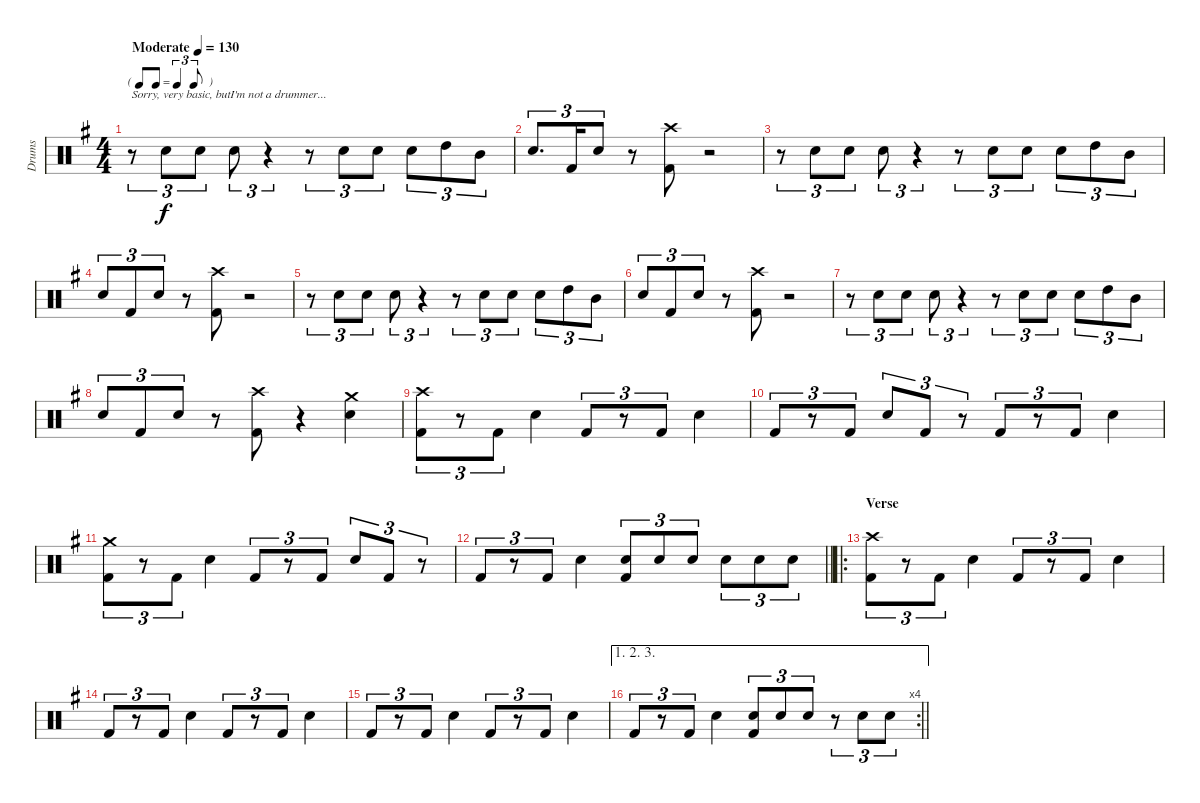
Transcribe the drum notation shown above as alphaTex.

\track ("Drums" "Drums") {instrument percussion}
\staff {score}
\articulation defaults
\ts (4 4)
\tf triplet8th
\tempo (130 "Moderate")
\clef neutral
\ks eminor
r.8{tu (3 2) txt "Sorry, very basic, butI'm not a drummer..." dy f} "Snare (hit) 2".8{tu (3 2)} "Snare (hit) 2".8{tu (3 2)} "Snare (hit) 2".8{tu (3 2)} r.4{tu (3 2)} r.8{tu (3 2)} "Snare (hit) 2".8{tu (3 2)} "Snare (hit) 2".8{tu (3 2)} "Snare (hit) 2".8{tu (3 2)} "High Tom (hit)".8{tu (3 2)} "Mid Tom (hit)".8{tu (3 2)} |
"Snare (hit) 2".8{d tu (3 2)} "Kick (hit) 2".16{tu (3 2)} "Snare (hit) 2".8{tu (3 2)} r.8 ("Kick (hit) 2" "Crash high (hit)").8 r.2 |
r.8{tu (3 2)} "Snare (hit) 2".8{tu (3 2)} "Snare (hit) 2".8{tu (3 2)} "Snare (hit) 2".8{tu (3 2)} r.4{tu (3 2)} r.8{tu (3 2)} "Snare (hit) 2".8{tu (3 2)} "Snare (hit) 2".8{tu (3 2)} "Snare (hit) 2".8{tu (3 2)} "High Tom (hit)".8{tu (3 2)} "Mid Tom (hit)".8{tu (3 2)} |
"Snare (hit) 2".8{tu (3 2)} "Kick (hit) 2".8{tu (3 2)} "Snare (hit) 2".8{tu (3 2)} r.8 ("Kick (hit) 2" "Crash high (hit)").8 r.2 |
r.8{tu (3 2)} "Snare (hit) 2".8{tu (3 2)} "Snare (hit) 2".8{tu (3 2)} "Snare (hit) 2".8{tu (3 2)} r.4{tu (3 2)} r.8{tu (3 2)} "Snare (hit) 2".8{tu (3 2)} "Snare (hit) 2".8{tu (3 2)} "Snare (hit) 2".8{tu (3 2)} "High Tom (hit)".8{tu (3 2)} "Mid Tom (hit)".8{tu (3 2)} |
"Snare (hit) 2".8{tu (3 2)} "Kick (hit) 2".8{tu (3 2)} "Snare (hit) 2".8{tu (3 2)} r.8 ("Kick (hit) 2" "Crash high (hit)").8 r.2 |
r.8{tu (3 2)} "Snare (hit) 2".8{tu (3 2)} "Snare (hit) 2".8{tu (3 2)} "Snare (hit) 2".8{tu (3 2)} r.4{tu (3 2)} r.8{tu (3 2)} "Snare (hit) 2".8{tu (3 2)} "Snare (hit) 2".8{tu (3 2)} "Snare (hit) 2".8{tu (3 2)} "High Tom (hit)".8{tu (3 2)} "Mid Tom (hit)".8{tu (3 2)} |
"Snare (hit) 2".8{tu (3 2)} "Kick (hit) 2".8{tu (3 2)} "Snare (hit) 2".8{tu (3 2)} r.8 ("Kick (hit) 2" "Crash high (hit)").8 r.4 ("Snare (hit) 2" "Crash medium (hit)").4 |
("Kick (hit) 2" "Crash high (hit)").8{tu (3 2)} r.8{tu (3 2)} "Kick (hit) 2".8{tu (3 2)} "Snare (hit) 2".4 "Kick (hit) 2".8{tu (3 2)} r.8{tu (3 2)} "Kick (hit) 2".8{tu (3 2)} "Snare (hit) 2".4 |
"Kick (hit) 2".8{tu (3 2)} r.8{tu (3 2)} "Kick (hit) 2".8{tu (3 2)} "Snare (hit) 2".8{tu (3 2)} "Kick (hit) 2".8{tu (3 2)} r.8{tu (3 2)} "Kick (hit) 2".8{tu (3 2)} r.8{tu (3 2)} "Kick (hit) 2".8{tu (3 2)} "Snare (hit) 2".4 |
("Kick (hit) 2" "Crash medium (hit)").8{tu (3 2)} r.8{tu (3 2)} "Kick (hit) 2".8{tu (3 2)} "Snare (hit) 2".4 "Kick (hit) 2".8{tu (3 2)} r.8{tu (3 2)} "Kick (hit) 2".8{tu (3 2)} "Snare (hit) 2".8{tu (3 2)} "Kick (hit) 2".8{tu (3 2)} r.8{tu (3 2)} |
\barLineRight lightlight "Kick (hit) 2".8{tu (3 2)}
r.8{tu (3 2)} "Kick (hit) 2".8{tu (3 2)} "Snare (hit) 2".4 ("Kick (hit) 2" "Snare (hit) 2").8{tu (3 2)} "Snare (hit) 2".8{tu (3 2)} "Snare (hit) 2".8{tu (3 2)} "Snare (hit) 2".8{tu (3 2)} "Snare (hit) 2".8{tu (3 2)} "Snare (hit) 2".8{tu (3 2)} |
\ro
\section ("" "Verse")
("Kick (hit) 2" "Crash high (hit)").8{tu (3 2)} r.8{tu (3 2)} "Kick (hit) 2".8{tu (3 2)} "Snare (hit) 2".4 "Kick (hit) 2".8{tu (3 2)} r.8{tu (3 2)} "Kick (hit) 2".8{tu (3 2)} "Snare (hit) 2".4 |
"Kick (hit) 2".8{tu (3 2)} r.8{tu (3 2)} "Kick (hit) 2".8{tu (3 2)} "Snare (hit) 2".4 "Kick (hit) 2".8{tu (3 2)} r.8{tu (3 2)} "Kick (hit) 2".8{tu (3 2)} "Snare (hit) 2".4 |
"Kick (hit) 2".8{tu (3 2)} r.8{tu (3 2)} "Kick (hit) 2".8{tu (3 2)} "Snare (hit) 2".4 "Kick (hit) 2".8{tu (3 2)} r.8{tu (3 2)} "Kick (hit) 2".8{tu (3 2)} "Snare (hit) 2".4 |
\ae (1 2 3)
\rc 4
\barLineRight lightlight "Kick (hit) 2".8{tu (3 2)}
r.8{tu (3 2)} "Kick (hit) 2".8{tu (3 2)} "Snare (hit) 2".4 ("Kick (hit) 2" "Snare (hit) 2").8{tu (3 2)} "Snare (hit) 2".8{tu (3 2)} "Snare (hit) 2".8{tu (3 2)} r.8{tu (3 2)} "Snare (hit) 2".8{tu (3 2)} "Snare (hit) 2".8{tu (3 2)}
